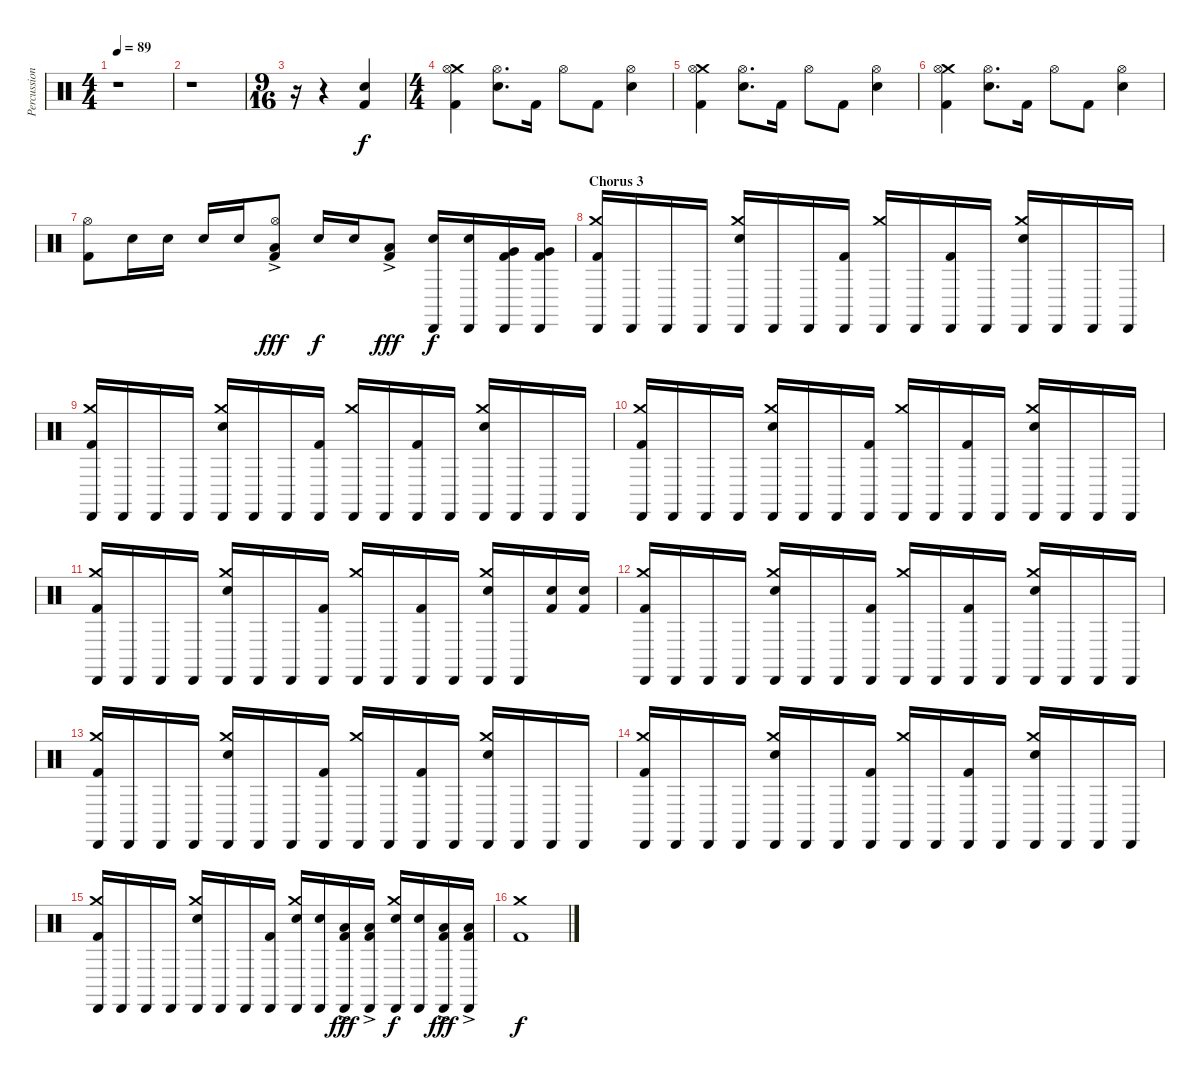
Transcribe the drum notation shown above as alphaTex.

\track ("Percussions" "Percussion") {instrument percussion}
\staff {score}
\articulation defaults
\ts (4 4)
\tempo 89
\clef neutral
\ks c
r.1{dy f} |
r.1 |
\ts (9 16)
r.16 r.4 ("Electric Snare (hit)" "Kick (hit) 2").4 |
\ts (4 4)
("Crash medium (hit)" "Hi-Hat (open)" "Kick (hit) 2").4 ("Hi-Hat (open)" "Electric Snare (hit)").8{d} "Kick (hit) 2".16 "Hi-Hat (open)".8 "Kick (hit) 2".8 ("Hi-Hat (open)" "Electric Snare (hit)").4 |
("Crash medium (hit)" "Hi-Hat (open)" "Kick (hit) 2").4 ("Hi-Hat (open)" "Electric Snare (hit)").8{d} "Kick (hit) 2".16 "Hi-Hat (open)".8 "Kick (hit) 2".8 ("Hi-Hat (open)" "Electric Snare (hit)").4 |
("Crash medium (hit)" "Hi-Hat (open)" "Kick (hit) 2").4 ("Hi-Hat (open)" "Electric Snare (hit)").8{d} "Kick (hit) 2".16 "Hi-Hat (open)".8 "Kick (hit) 2".8 ("Hi-Hat (open)" "Electric Snare (hit)").4 |
("Hi-Hat (open)" "Kick (hit) 2").8 "Electric Snare (hit)".16 "Electric Snare (hit)".16 "Electric Snare (hit)".16 "Electric Snare (hit)".16 ("Hi-Hat (open)" "Low Floor Tom (hit)"{ac} "Kick (hit) 2").8{dy fff} "Electric Snare (hit)".16{dy f} "Electric Snare (hit)".16 ("Low Floor Tom (hit)"{ac} "Kick (hit) 2").8{dy fff} ("Cabasa (hit)" "Electric Snare (hit)").16{dy f} ("Cabasa (hit)" "Electric Snare (hit)").16 ("Cabasa (hit)" "Very Low Tom (hit)" "Kick (hit) 2").16 ("Cabasa (hit)" "Very Low Tom (hit)" "Kick (hit) 2").16 |
\section ("" "Chorus 3")
("Crash medium (hit)" "Cabasa (hit)" "Kick (hit) 2").16 "Cabasa (hit)".16 "Cabasa (hit)".16 "Cabasa (hit)".16 ("Crash medium (hit)" "Cabasa (hit)" "Electric Snare (hit)").16 "Cabasa (hit)".16 "Cabasa (hit)".16 ("Cabasa (hit)" "Kick (hit) 2").16 ("Crash medium (hit)" "Cabasa (hit)").16 "Cabasa (hit)".16 ("Cabasa (hit)" "Kick (hit) 2").16 "Cabasa (hit)".16 ("Crash medium (hit)" "Cabasa (hit)" "Electric Snare (hit)").16 "Cabasa (hit)".16 "Cabasa (hit)".16 "Cabasa (hit)".16 |
("Crash medium (hit)" "Cabasa (hit)" "Kick (hit) 2").16 "Cabasa (hit)".16 "Cabasa (hit)".16 "Cabasa (hit)".16 ("Crash medium (hit)" "Cabasa (hit)" "Electric Snare (hit)").16 "Cabasa (hit)".16 "Cabasa (hit)".16 ("Cabasa (hit)" "Kick (hit) 2").16 ("Crash medium (hit)" "Cabasa (hit)").16 "Cabasa (hit)".16 ("Cabasa (hit)" "Kick (hit) 2").16 "Cabasa (hit)".16 ("Crash medium (hit)" "Cabasa (hit)" "Electric Snare (hit)").16 "Cabasa (hit)".16 "Cabasa (hit)".16 "Cabasa (hit)".16 |
("Crash medium (hit)" "Cabasa (hit)" "Kick (hit) 2").16 "Cabasa (hit)".16 "Cabasa (hit)".16 "Cabasa (hit)".16 ("Crash medium (hit)" "Cabasa (hit)" "Electric Snare (hit)").16 "Cabasa (hit)".16 "Cabasa (hit)".16 ("Cabasa (hit)" "Kick (hit) 2").16 ("Crash medium (hit)" "Cabasa (hit)").16 "Cabasa (hit)".16 ("Cabasa (hit)" "Kick (hit) 2").16 "Cabasa (hit)".16 ("Crash medium (hit)" "Cabasa (hit)" "Electric Snare (hit)").16 "Cabasa (hit)".16 "Cabasa (hit)".16 "Cabasa (hit)".16 |
("Crash medium (hit)" "Cabasa (hit)" "Kick (hit) 2").16 "Cabasa (hit)".16 "Cabasa (hit)".16 "Cabasa (hit)".16 ("Crash medium (hit)" "Cabasa (hit)" "Electric Snare (hit)").16 "Cabasa (hit)".16 "Cabasa (hit)".16 ("Cabasa (hit)" "Kick (hit) 2").16 ("Crash medium (hit)" "Cabasa (hit)").16 "Cabasa (hit)".16 ("Cabasa (hit)" "Kick (hit) 2").16 "Cabasa (hit)".16 ("Crash medium (hit)" "Cabasa (hit)" "Electric Snare (hit)").16 "Cabasa (hit)".16 ("Electric Snare (hit)" "Kick (hit) 2").16 ("Electric Snare (hit)" "Kick (hit) 2").16 |
("Crash medium (hit)" "Cabasa (hit)" "Kick (hit) 2").16 "Cabasa (hit)".16 "Cabasa (hit)".16 "Cabasa (hit)".16 ("Crash medium (hit)" "Cabasa (hit)" "Electric Snare (hit)").16 "Cabasa (hit)".16 "Cabasa (hit)".16 ("Cabasa (hit)" "Kick (hit) 2").16 ("Crash medium (hit)" "Cabasa (hit)").16 "Cabasa (hit)".16 ("Cabasa (hit)" "Kick (hit) 2").16 "Cabasa (hit)".16 ("Crash medium (hit)" "Cabasa (hit)" "Electric Snare (hit)").16 "Cabasa (hit)".16 "Cabasa (hit)".16 "Cabasa (hit)".16 |
("Crash medium (hit)" "Cabasa (hit)" "Kick (hit) 2").16 "Cabasa (hit)".16 "Cabasa (hit)".16 "Cabasa (hit)".16 ("Crash medium (hit)" "Cabasa (hit)" "Electric Snare (hit)").16 "Cabasa (hit)".16 "Cabasa (hit)".16 ("Cabasa (hit)" "Kick (hit) 2").16 ("Crash medium (hit)" "Cabasa (hit)").16 "Cabasa (hit)".16 ("Cabasa (hit)" "Kick (hit) 2").16 "Cabasa (hit)".16 ("Crash medium (hit)" "Cabasa (hit)" "Electric Snare (hit)").16 "Cabasa (hit)".16 "Cabasa (hit)".16 "Cabasa (hit)".16 |
("Crash medium (hit)" "Cabasa (hit)" "Kick (hit) 2").16 "Cabasa (hit)".16 "Cabasa (hit)".16 "Cabasa (hit)".16 ("Crash medium (hit)" "Cabasa (hit)" "Electric Snare (hit)").16 "Cabasa (hit)".16 "Cabasa (hit)".16 ("Cabasa (hit)" "Kick (hit) 2").16 ("Crash medium (hit)" "Cabasa (hit)").16 "Cabasa (hit)".16 ("Cabasa (hit)" "Kick (hit) 2").16 "Cabasa (hit)".16 ("Crash medium (hit)" "Cabasa (hit)" "Electric Snare (hit)").16 "Cabasa (hit)".16 "Cabasa (hit)".16 "Cabasa (hit)".16 |
("Crash medium (hit)" "Cabasa (hit)" "Kick (hit) 2").16 "Cabasa (hit)".16 "Cabasa (hit)".16 "Cabasa (hit)".16 ("Crash medium (hit)" "Cabasa (hit)" "Electric Snare (hit)").16 "Cabasa (hit)".16 "Cabasa (hit)".16 ("Cabasa (hit)" "Kick (hit) 2").16 ("Crash medium (hit)" "Cabasa (hit)" "Electric Snare (hit)").16 ("Cabasa (hit)" "Electric Snare (hit)").16 ("Cabasa (hit)" "Low Floor Tom (hit)"{ac} "Kick (hit) 2").16{dy fff} ("Cabasa (hit)" "Low Floor Tom (hit)"{ac} "Kick (hit) 2").16 ("Crash medium (hit)" "Cabasa (hit)" "Electric Snare (hit)").16{dy f} ("Cabasa (hit)" "Electric Snare (hit)").16 ("Cabasa (hit)" "Low Floor Tom (hit)"{ac} "Kick (hit) 2").16{dy fff} ("Cabasa (hit)" "Low Floor Tom (hit)"{ac} "Kick (hit) 2").16 |
("Crash medium (hit)" "Kick (hit) 2").1{dy f}
